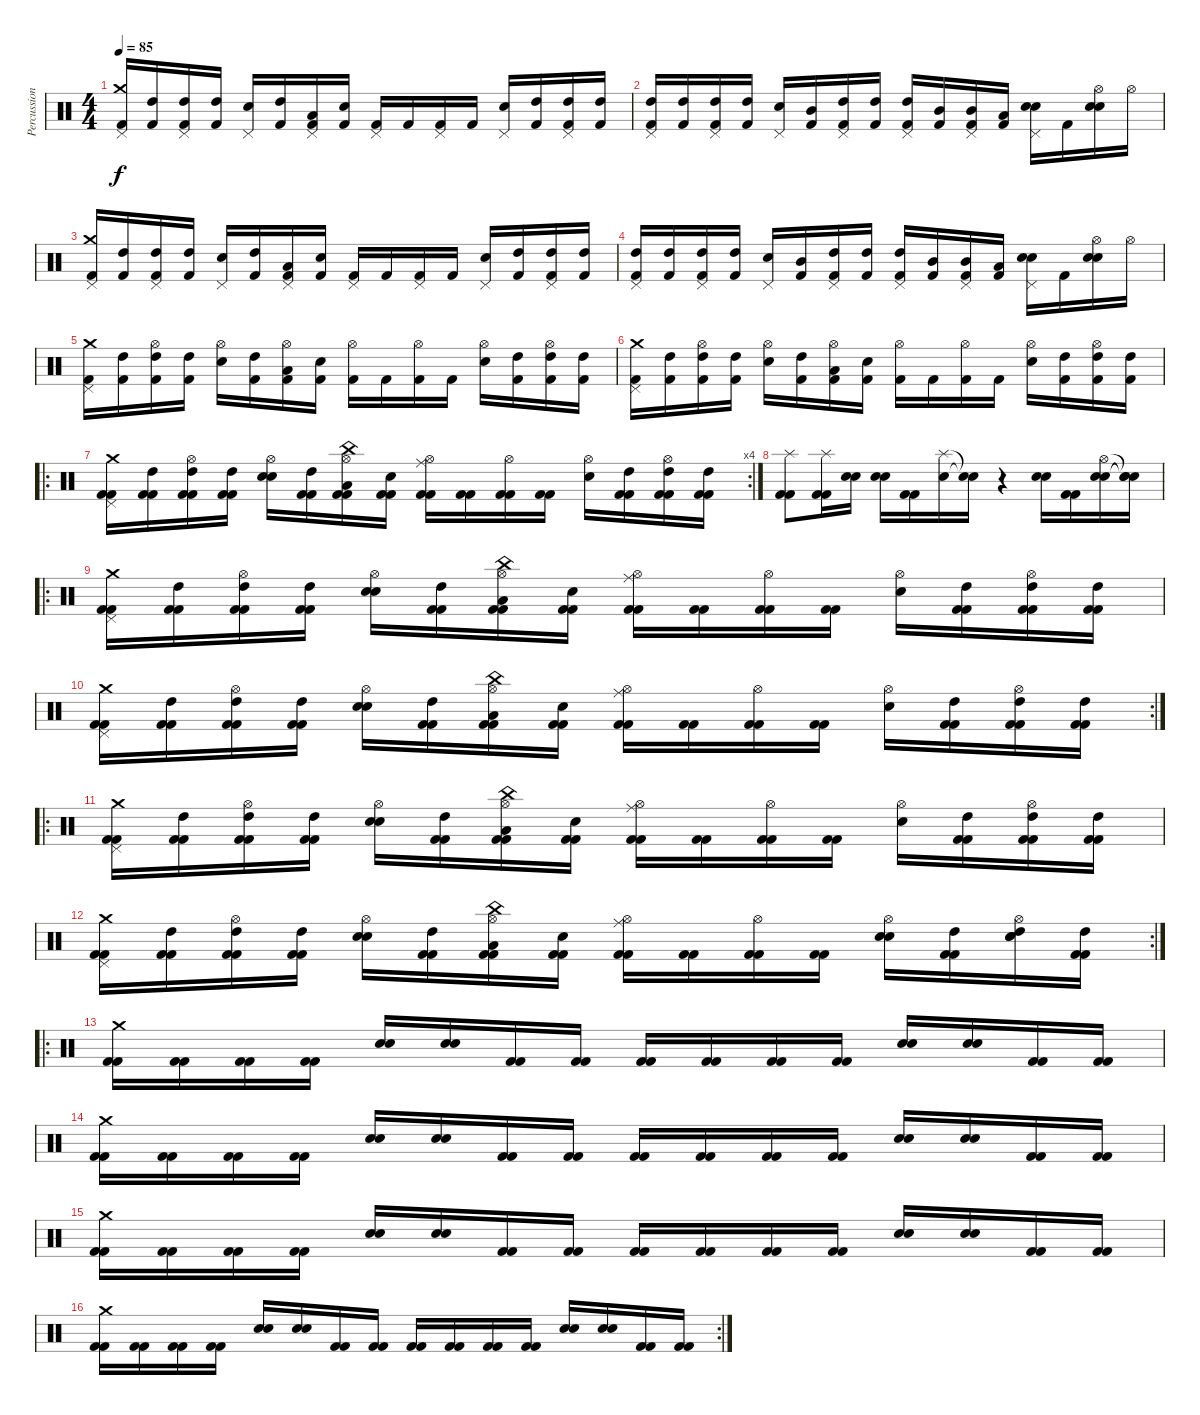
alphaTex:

\track ("Percussion" "Percussion") {instrument percussion}
\staff {score}
\articulation defaults
\ts (4 4)
\tempo 85
\clef neutral
\ks c
("Pedal Hi-Hat (hit)" "Crash medium (hit)" "Kick (hit) 2").16{dy f} ("High Tom (hit)" "Kick (hit) 2").16 ("Pedal Hi-Hat (hit)" "High Tom (hit)" "Kick (hit) 2").16 ("High Tom (hit)" "Kick (hit) 2").16 ("Pedal Hi-Hat (hit)" "Electric Snare (hit)").16 ("High Tom (hit)" "Kick (hit) 2").16 ("Pedal Hi-Hat (hit)" "Low Tom (hit)" "Kick (hit) 2").16 ("Snare (hit)" "Kick (hit) 2").16 ("Pedal Hi-Hat (hit)" "Kick (hit) 2").16 "Kick (hit) 2".16 ("Pedal Hi-Hat (hit)" "Kick (hit) 2").16 "Kick (hit) 2".16 ("Pedal Hi-Hat (hit)" "Electric Snare (hit)").16 ("High Tom (hit)" "Kick (hit) 2").16 ("Pedal Hi-Hat (hit)" "High Tom (hit)" "Kick (hit) 2").16 ("High Tom (hit)" "Kick (hit) 2").16 |
("Pedal Hi-Hat (hit)" "High Tom (hit)" "Kick (hit) 2").16 ("High Tom (hit)" "Kick (hit) 2").16 ("Pedal Hi-Hat (hit)" "High Tom (hit)" "Kick (hit) 2").16 ("High Tom (hit)" "Kick (hit) 2").16 ("Pedal Hi-Hat (hit)" "Electric Snare (hit)").16 ("Mid Tom (hit)" "Kick (hit) 2").16 ("Pedal Hi-Hat (hit)" "High Tom (hit)" "Kick (hit) 2").16 ("High Tom (hit)" "Kick (hit) 2").16 ("Pedal Hi-Hat (hit)" "High Tom (hit)" "Kick (hit) 2").16 ("Mid Tom (hit)" "Kick (hit) 2").16 ("Pedal Hi-Hat (hit)" "Mid Tom (hit)" "Kick (hit) 2").16 ("Low Tom (hit)" "Kick (hit) 2").16 ("Pedal Hi-Hat (hit)" "Electric Snare (hit)" "Electric Snare (hit)").16 "Kick (hit) 2".16 ("Hi-Hat (open)" "Electric Snare (hit)" "Electric Snare (hit)").16 "Hi-Hat (open)".16 |
("Pedal Hi-Hat (hit)" "Crash medium (hit)" "Kick (hit) 2").16 ("High Tom (hit)" "Kick (hit) 2").16 ("Pedal Hi-Hat (hit)" "High Tom (hit)" "Kick (hit) 2").16 ("High Tom (hit)" "Kick (hit) 2").16 ("Pedal Hi-Hat (hit)" "Electric Snare (hit)").16 ("High Tom (hit)" "Kick (hit) 2").16 ("Pedal Hi-Hat (hit)" "Low Tom (hit)" "Kick (hit) 2").16 ("Snare (hit)" "Kick (hit) 2").16 ("Pedal Hi-Hat (hit)" "Kick (hit) 2").16 "Kick (hit) 2".16 ("Pedal Hi-Hat (hit)" "Kick (hit) 2").16 "Kick (hit) 2".16 ("Pedal Hi-Hat (hit)" "Electric Snare (hit)").16 ("High Tom (hit)" "Kick (hit) 2").16 ("Pedal Hi-Hat (hit)" "High Tom (hit)" "Kick (hit) 2").16 ("High Tom (hit)" "Kick (hit) 2").16 |
("Pedal Hi-Hat (hit)" "High Tom (hit)" "Kick (hit) 2").16 ("High Tom (hit)" "Kick (hit) 2").16 ("Pedal Hi-Hat (hit)" "High Tom (hit)" "Kick (hit) 2").16 ("High Tom (hit)" "Kick (hit) 2").16 ("Pedal Hi-Hat (hit)" "Electric Snare (hit)").16 ("Mid Tom (hit)" "Kick (hit) 2").16 ("Pedal Hi-Hat (hit)" "High Tom (hit)" "Kick (hit) 2").16 ("High Tom (hit)" "Kick (hit) 2").16 ("Pedal Hi-Hat (hit)" "High Tom (hit)" "Kick (hit) 2").16 ("Mid Tom (hit)" "Kick (hit) 2").16 ("Pedal Hi-Hat (hit)" "Mid Tom (hit)" "Kick (hit) 2").16 ("Low Tom (hit)" "Kick (hit) 2").16 ("Pedal Hi-Hat (hit)" "Electric Snare (hit)" "Electric Snare (hit)").16 "Kick (hit) 2".16 ("Hi-Hat (open)" "Electric Snare (hit)" "Electric Snare (hit)").16 "Hi-Hat (open)".16 |
("Pedal Hi-Hat (hit)" "Crash medium (hit)" "Kick (hit) 2").16 ("High Tom (hit)" "Kick (hit) 2").16 ("Hi-Hat (open)" "High Tom (hit)" "Kick (hit) 2").16 ("High Tom (hit)" "Kick (hit) 2").16 ("Hi-Hat (open)" "Electric Snare (hit)").16 ("High Tom (hit)" "Kick (hit) 2").16 ("Hi-Hat (open)" "Low Tom (hit)" "Kick (hit) 2").16 ("Snare (hit)" "Kick (hit) 2").16 ("Hi-Hat (open)" "Kick (hit) 2").16 "Kick (hit) 2".16 ("Hi-Hat (open)" "Kick (hit) 2").16 "Kick (hit) 2".16 ("Hi-Hat (open)" "Electric Snare (hit)").16 ("High Tom (hit)" "Kick (hit) 2").16 ("Hi-Hat (open)" "High Tom (hit)" "Kick (hit) 2").16 ("High Tom (hit)" "Kick (hit) 2").16 |
("Pedal Hi-Hat (hit)" "Crash medium (hit)" "Kick (hit) 2").16 ("High Tom (hit)" "Kick (hit) 2").16 ("Hi-Hat (open)" "High Tom (hit)" "Kick (hit) 2").16 ("High Tom (hit)" "Kick (hit) 2").16 ("Hi-Hat (open)" "Electric Snare (hit)").16 ("High Tom (hit)" "Kick (hit) 2").16 ("Hi-Hat (open)" "Low Tom (hit)" "Kick (hit) 2").16 ("Snare (hit)" "Kick (hit) 2").16 ("Hi-Hat (open)" "Kick (hit) 2").16 "Kick (hit) 2".16 ("Hi-Hat (open)" "Kick (hit) 2").16 "Kick (hit) 2".16 ("Hi-Hat (open)" "Electric Snare (hit)").16 ("High Tom (hit)" "Kick (hit) 2").16 ("Hi-Hat (open)" "High Tom (hit)" "Kick (hit) 2").16 ("High Tom (hit)" "Kick (hit) 2").16 |
\ro
\rc 4
("Pedal Hi-Hat (hit)" "Crash medium (hit)" "Kick (hit) 2" "Kick (hit) 2").16 ("High Tom (hit)" "Kick (hit) 2" "Kick (hit) 2").16 ("Hi-Hat (open)" "High Tom (hit)" "Kick (hit) 2" "Kick (hit) 2").16 ("High Tom (hit)" "Kick (hit) 2" "Kick (hit) 2").16 ("Hi-Hat (open)" "Electric Snare (hit)" "Snare (hit)").16 ("High Tom (hit)" "Kick (hit) 2" "Kick (hit) 2").16 ("China (hit)" "Hi-Hat (open)" "Low Tom (hit)" "Kick (hit) 2" "Kick (hit) 2").16 ("Snare (hit)" "Kick (hit) 2" "Kick (hit) 2").16 ("Ride (middle)" "Hi-Hat (open)" "Kick (hit) 2" "Kick (hit) 2").16 ("Kick (hit) 2" "Kick (hit) 2").16 ("Hi-Hat (open)" "Kick (hit) 2" "Kick (hit) 2").16 ("Kick (hit) 2" "Kick (hit) 2").16 ("Hi-Hat (open)" "Electric Snare (hit)").16 ("High Tom (hit)" "Kick (hit) 2" "Kick (hit) 2").16 ("Hi-Hat (open)" "High Tom (hit)" "Kick (hit) 2" "Kick (hit) 2").16 ("High Tom (hit)" "Kick (hit) 2" "Kick (hit) 2").16 |
("Splash (hit)" "Kick (hit) 2" "Kick (hit) 2").8 ("Splash (hit)" "Kick (hit) 2" "Kick (hit) 2").16 ("Electric Snare (hit)" "Electric Snare (hit)").16 ("Electric Snare (hit)" "Electric Snare (hit)").16 ("Kick (hit) 2" "Kick (hit) 2").16 ("Splash (hit)" "Electric Snare (hit)").16 ("Snare (hit)"{t} "Snare (hit)"{t}).16 r.4 ("Electric Snare (hit)" "Electric Snare (hit)").16 ("Kick (hit) 2" "Kick (hit) 2").16 ("Hi-Hat (open)" "Electric Snare (hit)" "Electric Snare (hit)").16 ("Snare (hit)"{t} "Snare (hit)"{t} "Snare (hit)"{t}).16 |
\ro
("Pedal Hi-Hat (hit)" "Crash medium (hit)" "Kick (hit) 2" "Kick (hit) 2").16 ("High Tom (hit)" "Kick (hit) 2" "Kick (hit) 2").16 ("Hi-Hat (open)" "High Tom (hit)" "Kick (hit) 2" "Kick (hit) 2").16 ("High Tom (hit)" "Kick (hit) 2" "Kick (hit) 2").16 ("Hi-Hat (open)" "Electric Snare (hit)" "Snare (hit)").16 ("High Tom (hit)" "Kick (hit) 2" "Kick (hit) 2").16 ("China (hit)" "Hi-Hat (open)" "Low Tom (hit)" "Kick (hit) 2" "Kick (hit) 2").16 ("Snare (hit)" "Kick (hit) 2" "Kick (hit) 2").16 ("Ride (middle)" "Hi-Hat (open)" "Kick (hit) 2" "Kick (hit) 2").16 ("Kick (hit) 2" "Kick (hit) 2").16 ("Hi-Hat (open)" "Kick (hit) 2" "Kick (hit) 2").16 ("Kick (hit) 2" "Kick (hit) 2").16 ("Hi-Hat (open)" "Electric Snare (hit)").16 ("High Tom (hit)" "Kick (hit) 2" "Kick (hit) 2").16 ("Hi-Hat (open)" "High Tom (hit)" "Kick (hit) 2" "Kick (hit) 2").16 ("High Tom (hit)" "Kick (hit) 2" "Kick (hit) 2").16 |
\rc 2
("Pedal Hi-Hat (hit)" "Crash medium (hit)" "Kick (hit) 2" "Kick (hit) 2").16 ("High Tom (hit)" "Kick (hit) 2" "Kick (hit) 2").16 ("Hi-Hat (open)" "High Tom (hit)" "Kick (hit) 2" "Kick (hit) 2").16 ("High Tom (hit)" "Kick (hit) 2" "Kick (hit) 2").16 ("Hi-Hat (open)" "Electric Snare (hit)" "Snare (hit)").16 ("High Tom (hit)" "Kick (hit) 2" "Kick (hit) 2").16 ("China (hit)" "Hi-Hat (open)" "Low Tom (hit)" "Kick (hit) 2" "Kick (hit) 2").16 ("Snare (hit)" "Kick (hit) 2" "Kick (hit) 2").16 ("Ride (middle)" "Hi-Hat (open)" "Kick (hit) 2" "Kick (hit) 2").16 ("Kick (hit) 2" "Kick (hit) 2").16 ("Hi-Hat (open)" "Kick (hit) 2" "Kick (hit) 2").16 ("Kick (hit) 2" "Kick (hit) 2").16 ("Hi-Hat (open)" "Electric Snare (hit)").16 ("High Tom (hit)" "Kick (hit) 2" "Kick (hit) 2").16 ("Hi-Hat (open)" "High Tom (hit)" "Kick (hit) 2" "Kick (hit) 2").16 ("High Tom (hit)" "Kick (hit) 2" "Kick (hit) 2").16 |
\ro
("Pedal Hi-Hat (hit)" "Crash medium (hit)" "Kick (hit) 2" "Kick (hit) 2").16 ("High Tom (hit)" "Kick (hit) 2" "Kick (hit) 2").16 ("Hi-Hat (open)" "High Tom (hit)" "Kick (hit) 2" "Kick (hit) 2").16 ("High Tom (hit)" "Kick (hit) 2" "Kick (hit) 2").16 ("Hi-Hat (open)" "Electric Snare (hit)" "Snare (hit)").16 ("High Tom (hit)" "Kick (hit) 2" "Kick (hit) 2").16 ("China (hit)" "Hi-Hat (open)" "Low Tom (hit)" "Kick (hit) 2" "Kick (hit) 2").16 ("Snare (hit)" "Kick (hit) 2" "Kick (hit) 2").16 ("Ride (middle)" "Hi-Hat (open)" "Kick (hit) 2" "Kick (hit) 2").16 ("Kick (hit) 2" "Kick (hit) 2").16 ("Hi-Hat (open)" "Kick (hit) 2" "Kick (hit) 2").16 ("Kick (hit) 2" "Kick (hit) 2").16 ("Hi-Hat (open)" "Electric Snare (hit)").16 ("High Tom (hit)" "Kick (hit) 2" "Kick (hit) 2").16 ("Hi-Hat (open)" "High Tom (hit)" "Kick (hit) 2" "Kick (hit) 2").16 ("High Tom (hit)" "Kick (hit) 2" "Kick (hit) 2").16 |
\rc 2
("Pedal Hi-Hat (hit)" "Crash medium (hit)" "Kick (hit) 2" "Kick (hit) 2").16 ("High Tom (hit)" "Kick (hit) 2" "Kick (hit) 2").16 ("Hi-Hat (open)" "High Tom (hit)" "Kick (hit) 2" "Kick (hit) 2").16 ("High Tom (hit)" "Kick (hit) 2" "Kick (hit) 2").16 ("Hi-Hat (open)" "Electric Snare (hit)" "Snare (hit)").16 ("High Tom (hit)" "Kick (hit) 2" "Kick (hit) 2").16 ("China (hit)" "Hi-Hat (open)" "Low Tom (hit)" "Kick (hit) 2" "Kick (hit) 2").16 ("Snare (hit)" "Kick (hit) 2" "Kick (hit) 2").16 ("Ride (middle)" "Hi-Hat (open)" "Kick (hit) 2" "Kick (hit) 2").16 ("Kick (hit) 2" "Kick (hit) 2").16 ("Hi-Hat (open)" "Kick (hit) 2" "Kick (hit) 2").16 ("Kick (hit) 2" "Kick (hit) 2").16 ("Hi-Hat (open)" "Electric Snare (hit)" "Electric Snare (hit)").16 ("High Tom (hit)" "Kick (hit) 2" "Kick (hit) 2").16 ("Hi-Hat (open)" "High Tom (hit)" "Electric Snare (hit)" "Electric Snare (hit)").16 ("High Tom (hit)" "Kick (hit) 2" "Kick (hit) 2").16 |
\ro
("Crash medium (hit)" "Kick (hit) 2" "Kick (hit) 2").16 ("Kick (hit) 2" "Kick (hit) 2").16 ("Kick (hit) 2" "Kick (hit) 2").16 ("Kick (hit) 2" "Kick (hit) 2").16 ("Electric Snare (hit)" "Electric Snare (hit)").16 ("Electric Snare (hit)" "Electric Snare (hit)").16 ("Kick (hit) 2" "Kick (hit) 2").16 ("Kick (hit) 2" "Kick (hit) 2").16 ("Kick (hit) 2" "Kick (hit) 2").16 ("Kick (hit) 2" "Kick (hit) 2").16 ("Kick (hit) 2" "Kick (hit) 2").16 ("Kick (hit) 2" "Kick (hit) 2").16 ("Electric Snare (hit)" "Electric Snare (hit)").16 ("Electric Snare (hit)" "Electric Snare (hit)").16 ("Kick (hit) 2" "Kick (hit) 2").16 ("Kick (hit) 2" "Kick (hit) 2").16 |
("Crash medium (hit)" "Kick (hit) 2" "Kick (hit) 2").16 ("Kick (hit) 2" "Kick (hit) 2").16 ("Kick (hit) 2" "Kick (hit) 2").16 ("Kick (hit) 2" "Kick (hit) 2").16 ("Electric Snare (hit)" "Electric Snare (hit)").16 ("Electric Snare (hit)" "Electric Snare (hit)").16 ("Kick (hit) 2" "Kick (hit) 2").16 ("Kick (hit) 2" "Kick (hit) 2").16 ("Kick (hit) 2" "Kick (hit) 2").16 ("Kick (hit) 2" "Kick (hit) 2").16 ("Kick (hit) 2" "Kick (hit) 2").16 ("Kick (hit) 2" "Kick (hit) 2").16 ("Electric Snare (hit)" "Electric Snare (hit)").16 ("Electric Snare (hit)" "Electric Snare (hit)").16 ("Kick (hit) 2" "Kick (hit) 2").16 ("Kick (hit) 2" "Kick (hit) 2").16 |
("Crash medium (hit)" "Kick (hit) 2" "Kick (hit) 2").16 ("Kick (hit) 2" "Kick (hit) 2").16 ("Kick (hit) 2" "Kick (hit) 2").16 ("Kick (hit) 2" "Kick (hit) 2").16 ("Electric Snare (hit)" "Electric Snare (hit)").16 ("Electric Snare (hit)" "Electric Snare (hit)").16 ("Kick (hit) 2" "Kick (hit) 2").16 ("Kick (hit) 2" "Kick (hit) 2").16 ("Kick (hit) 2" "Kick (hit) 2").16 ("Kick (hit) 2" "Kick (hit) 2").16 ("Kick (hit) 2" "Kick (hit) 2").16 ("Kick (hit) 2" "Kick (hit) 2").16 ("Snare (hit) 2" "Snare (hit) 2").16 ("Electric Snare (hit)" "Electric Snare (hit)").16 ("Kick (hit) 2" "Kick (hit) 2").16 ("Kick (hit) 2" "Kick (hit) 2").16 |
\rc 2
("Crash medium (hit)" "Kick (hit) 2" "Kick (hit) 2").16 ("Kick (hit) 2" "Kick (hit) 2").16 ("Kick (hit) 2" "Kick (hit) 2").16 ("Kick (hit) 2" "Kick (hit) 2").16 ("Electric Snare (hit)" "Electric Snare (hit)").16 ("Electric Snare (hit)" "Electric Snare (hit)").16 ("Kick (hit) 2" "Kick (hit) 2").16 ("Kick (hit) 2" "Kick (hit) 2").16 ("Kick (hit) 2" "Kick (hit) 2").16 ("Kick (hit) 2" "Kick (hit) 2").16 ("Kick (hit) 2" "Kick (hit) 2").16 ("Kick (hit) 2" "Kick (hit) 2").16 ("Electric Snare (hit)" "Electric Snare (hit)").16 ("Electric Snare (hit)" "Electric Snare (hit)").16 ("Kick (hit) 2" "Kick (hit) 2").16 ("Kick (hit) 2" "Kick (hit) 2").16
